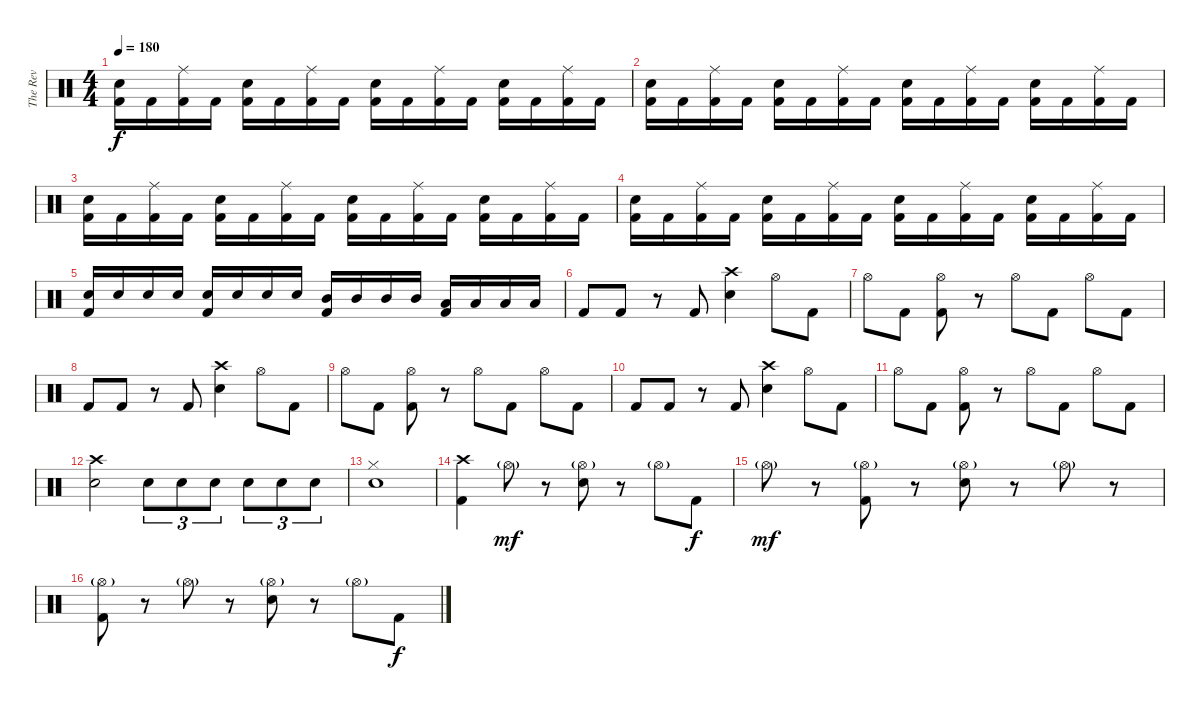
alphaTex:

\track ("The Rev" "The Rev") {instrument percussion}
\staff {score}
\articulation defaults
\ts (4 4)
\tempo 180
\clef neutral
\ks c
("Snare (hit) 2" "Kick (hit) 2").16{dy f} "Kick (hit) 2".16 ("Ride (middle)" "Kick (hit) 2").16 "Kick (hit) 2".16 ("Snare (hit) 2" "Kick (hit) 2").16 "Kick (hit) 2".16 ("Ride (middle)" "Kick (hit) 2").16 "Kick (hit) 2".16 ("Snare (hit) 2" "Kick (hit) 2").16 "Kick (hit) 2".16 ("Ride (middle)" "Kick (hit) 2").16 "Kick (hit) 2".16 ("Snare (hit) 2" "Kick (hit) 2").16 "Kick (hit) 2".16 ("Ride (middle)" "Kick (hit) 2").16 "Kick (hit) 2".16 |
("Snare (hit) 2" "Kick (hit) 2").16 "Kick (hit) 2".16 ("Ride (middle)" "Kick (hit) 2").16 "Kick (hit) 2".16 ("Snare (hit) 2" "Kick (hit) 2").16 "Kick (hit) 2".16 ("Ride (middle)" "Kick (hit) 2").16 "Kick (hit) 2".16 ("Snare (hit) 2" "Kick (hit) 2").16 "Kick (hit) 2".16 ("Ride (middle)" "Kick (hit) 2").16 "Kick (hit) 2".16 ("Snare (hit) 2" "Kick (hit) 2").16 "Kick (hit) 2".16 ("Ride (middle)" "Kick (hit) 2").16 "Kick (hit) 2".16 |
("Snare (hit) 2" "Kick (hit) 2").16 "Kick (hit) 2".16 ("Ride (middle)" "Kick (hit) 2").16 "Kick (hit) 2".16 ("Snare (hit) 2" "Kick (hit) 2").16 "Kick (hit) 2".16 ("Ride (middle)" "Kick (hit) 2").16 "Kick (hit) 2".16 ("Snare (hit) 2" "Kick (hit) 2").16 "Kick (hit) 2".16 ("Ride (middle)" "Kick (hit) 2").16 "Kick (hit) 2".16 ("Snare (hit) 2" "Kick (hit) 2").16 "Kick (hit) 2".16 ("Ride (middle)" "Kick (hit) 2").16 "Kick (hit) 2".16 |
("Snare (hit) 2" "Kick (hit) 2").16 "Kick (hit) 2".16 ("Ride (middle)" "Kick (hit) 2").16 "Kick (hit) 2".16 ("Snare (hit) 2" "Kick (hit) 2").16 "Kick (hit) 2".16 ("Ride (middle)" "Kick (hit) 2").16 "Kick (hit) 2".16 ("Snare (hit) 2" "Kick (hit) 2").16 "Kick (hit) 2".16 ("Ride (middle)" "Kick (hit) 2").16 "Kick (hit) 2".16 ("Snare (hit) 2" "Kick (hit) 2").16 "Kick (hit) 2".16 ("Ride (middle)" "Kick (hit) 2").16 "Kick (hit) 2".16 |
("Kick (hit) 2" "Snare (hit) 2").16 "Snare (hit) 2".16 "Snare (hit) 2".16 "Snare (hit) 2".16 ("Kick (hit) 2" "Snare (hit) 2").16 "Snare (hit) 2".16 "Snare (hit) 2".16 "Snare (hit) 2".16 ("Kick (hit) 2" "Mid Tom (hit)").16 "Mid Tom (hit)".16 "Mid Tom (hit)".16 "Mid Tom (hit)".16 ("Kick (hit) 2" "Low Tom (hit)").16 "Low Tom (hit)".16 "Low Floor Tom (hit)".16 "Low Floor Tom (hit)".16 |
"Kick (hit) 2".8 "Kick (hit) 2".8 r.8 "Kick (hit) 2".8 ("Crash high (hit)" "Snare (hit) 2").4 "Hi-Hat (open)".8 "Kick (hit) 2".8 |
"Hi-Hat (open)".8 "Kick (hit) 2".8 ("Hi-Hat (open)" "Kick (hit) 2").8 r.8 "Hi-Hat (open)".8 "Kick (hit) 2".8 "Hi-Hat (open)".8 "Kick (hit) 2".8 |
"Kick (hit) 2".8 "Kick (hit) 2".8 r.8 "Kick (hit) 2".8 ("Crash high (hit)" "Snare (hit) 2").4 "Hi-Hat (open)".8 "Kick (hit) 2".8 |
"Hi-Hat (open)".8 "Kick (hit) 2".8 ("Hi-Hat (open)" "Kick (hit) 2").8 r.8 "Hi-Hat (open)".8 "Kick (hit) 2".8 "Hi-Hat (open)".8 "Kick (hit) 2".8 |
"Kick (hit) 2".8 "Kick (hit) 2".8 r.8 "Kick (hit) 2".8 ("Crash high (hit)" "Snare (hit) 2").4 "Hi-Hat (open)".8 "Kick (hit) 2".8 |
"Hi-Hat (open)".8 "Kick (hit) 2".8 ("Hi-Hat (open)" "Kick (hit) 2").8 r.8 "Hi-Hat (open)".8 "Kick (hit) 2".8 "Hi-Hat (open)".8 "Kick (hit) 2".8 |
("Crash high (hit)" "Snare (hit) 2").2 "Snare (hit) 2".8{tu (3 2)} "Snare (hit) 2".8{tu (3 2)} "Snare (hit) 2".8{tu (3 2)} "Snare (hit) 2".8{tu (3 2)} "Snare (hit) 2".8{tu (3 2)} "Snare (hit) 2".8{tu (3 2)} |
("Hi-Hat (closed)" "Snare (hit) 2").1 |
("Crash high (hit)" "Kick (hit) 2").4 "Hi-Hat (open)"{g}.8{dy mf} r.8 ("Hi-Hat (open)"{g} "Snare (hit) 2").8 r.8 "Hi-Hat (open)"{g}.8 "Kick (hit) 2".8{dy f} |
"Hi-Hat (open)"{g}.8{dy mf} r.8 ("Hi-Hat (open)"{g} "Kick (hit) 2").8 r.8 ("Hi-Hat (open)"{g} "Snare (hit) 2").8 r.8 "Hi-Hat (open)"{g}.8 r.8 |
("Hi-Hat (open)"{g} "Kick (hit) 2").8 r.8 "Hi-Hat (open)"{g}.8 r.8 ("Hi-Hat (open)"{g} "Snare (hit) 2").8 r.8 "Hi-Hat (open)"{g}.8 "Kick (hit) 2".8{dy f}
